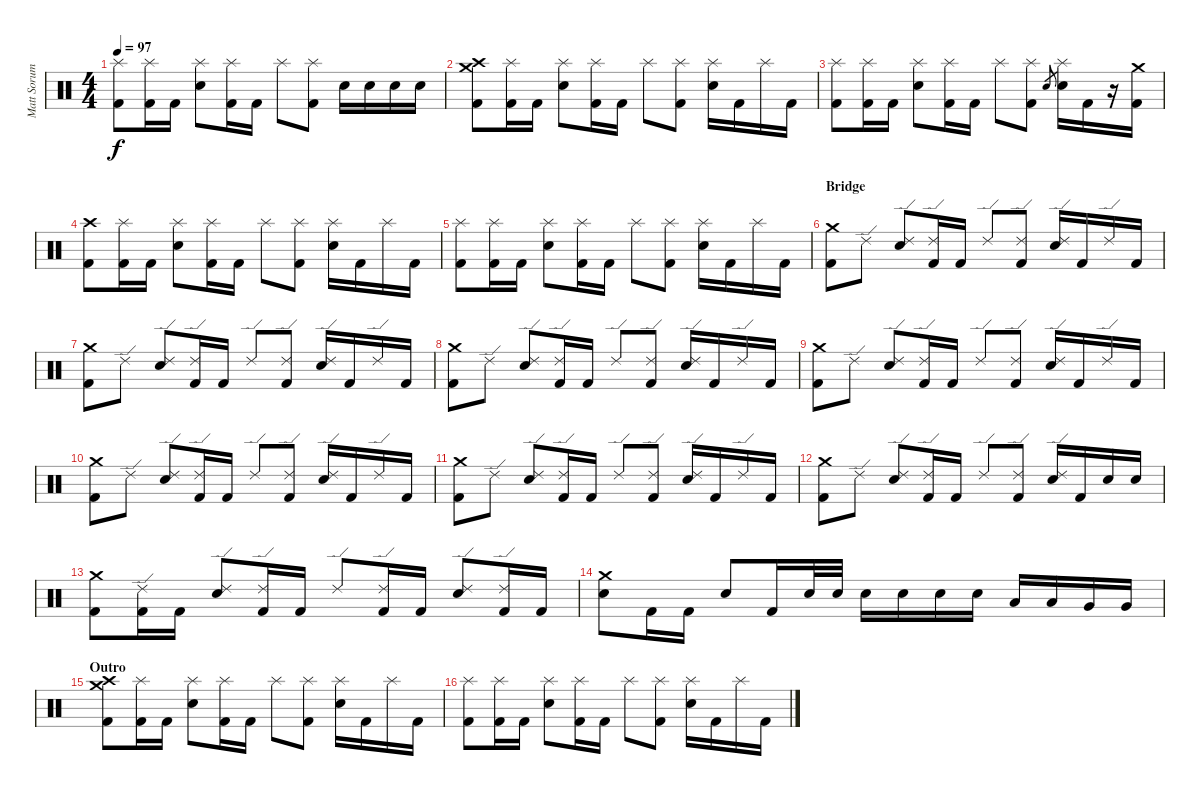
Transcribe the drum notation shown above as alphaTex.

\track ("Matt Sorum" "Matt Sorum") {instrument percussion}
\staff {score}
\articulation defaults
\ts (4 4)
\tempo 97
\clef neutral
\ks c
("Splash (hit)" "Kick (hit) 2").8{dy f} ("Splash (hit)" "Kick (hit) 2").16 "Kick (hit) 2".16 ("Splash (hit)" "Electric Snare (hit)").8 ("Splash (hit)" "Kick (hit) 2").16 "Kick (hit) 2".16 "Splash (hit)".8 ("Splash (hit)" "Kick (hit) 2").8 "Electric Snare (hit)".16 "Electric Snare (hit)".16 "Electric Snare (hit)".16 "Electric Snare (hit)".16 |
("Crash medium (hit)" "Crash high (hit)" "Kick (hit) 2").8 ("Splash (hit)" "Kick (hit) 2").16 "Kick (hit) 2".16 ("Splash (hit)" "Electric Snare (hit)").8 ("Splash (hit)" "Kick (hit) 2").16 "Kick (hit) 2".16 "Splash (hit)".8 ("Splash (hit)" "Kick (hit) 2").8 ("Splash (hit)" "Electric Snare (hit)").16 "Kick (hit) 2".16 "Splash (hit)".16 "Kick (hit) 2".16 |
("Splash (hit)" "Kick (hit) 2").8 ("Splash (hit)" "Kick (hit) 2").16 "Kick (hit) 2".16 ("Splash (hit)" "Electric Snare (hit)").8 ("Splash (hit)" "Kick (hit) 2").16 "Kick (hit) 2".16 "Splash (hit)".8 ("Splash (hit)" "Kick (hit) 2").8 "Electric Snare (hit)".8{gr} ("Splash (hit)" "Electric Snare (hit)").16 "Kick (hit) 2".16 r.16 ("Crash medium (hit)" "Kick (hit) 2").16 |
("Crash high (hit)" "Kick (hit) 2").8 ("Splash (hit)" "Kick (hit) 2").16 "Kick (hit) 2".16 ("Splash (hit)" "Electric Snare (hit)").8 ("Splash (hit)" "Kick (hit) 2").16 "Kick (hit) 2".16 "Splash (hit)".8 ("Splash (hit)" "Kick (hit) 2").8 ("Splash (hit)" "Electric Snare (hit)").16 "Kick (hit) 2".16 "Splash (hit)".16 "Kick (hit) 2".16 |
("Splash (hit)" "Kick (hit) 2").8 ("Splash (hit)" "Kick (hit) 2").16 "Kick (hit) 2".16 ("Splash (hit)" "Electric Snare (hit)").8 ("Splash (hit)" "Kick (hit) 2").16 "Kick (hit) 2".16 "Splash (hit)".8 ("Splash (hit)" "Kick (hit) 2").8 ("Splash (hit)" "Electric Snare (hit)").16 "Kick (hit) 2".16 "Splash (hit)".16 "Kick (hit) 2".16 |
\section ("" "Bridge")
("Crash medium (hit)" "Kick (hit) 2").8 "Ride (edge) 2".8 ("Ride (edge) 2" "Electric Snare (hit)").8 ("Ride (edge) 2" "Kick (hit) 2").16 "Kick (hit) 2".16 "Ride (edge) 2".8 ("Ride (edge) 2" "Kick (hit) 2").8 ("Ride (edge) 2" "Electric Snare (hit)").16 "Kick (hit) 2".16 "Ride (edge) 2".16 "Kick (hit) 2".16 |
("Crash medium (hit)" "Kick (hit) 2").8 "Ride (edge) 2".8 ("Ride (edge) 2" "Electric Snare (hit)").8 ("Ride (edge) 2" "Kick (hit) 2").16 "Kick (hit) 2".16 "Ride (edge) 2".8 ("Ride (edge) 2" "Kick (hit) 2").8 ("Ride (edge) 2" "Electric Snare (hit)").16 "Kick (hit) 2".16 "Ride (edge) 2".16 "Kick (hit) 2".16 |
("Crash medium (hit)" "Kick (hit) 2").8 "Ride (edge) 2".8 ("Ride (edge) 2" "Electric Snare (hit)").8 ("Ride (edge) 2" "Kick (hit) 2").16 "Kick (hit) 2".16 "Ride (edge) 2".8 ("Ride (edge) 2" "Kick (hit) 2").8 ("Ride (edge) 2" "Electric Snare (hit)").16 "Kick (hit) 2".16 "Ride (edge) 2".16 "Kick (hit) 2".16 |
("Crash medium (hit)" "Kick (hit) 2").8 "Ride (edge) 2".8 ("Ride (edge) 2" "Electric Snare (hit)").8 ("Ride (edge) 2" "Kick (hit) 2").16 "Kick (hit) 2".16 "Ride (edge) 2".8 ("Ride (edge) 2" "Kick (hit) 2").8 ("Ride (edge) 2" "Electric Snare (hit)").16 "Kick (hit) 2".16 "Ride (edge) 2".16 "Kick (hit) 2".16 |
("Crash medium (hit)" "Kick (hit) 2").8 "Ride (edge) 2".8 ("Ride (edge) 2" "Electric Snare (hit)").8 ("Ride (edge) 2" "Kick (hit) 2").16 "Kick (hit) 2".16 "Ride (edge) 2".8 ("Ride (edge) 2" "Kick (hit) 2").8 ("Ride (edge) 2" "Electric Snare (hit)").16 "Kick (hit) 2".16 "Ride (edge) 2".16 "Kick (hit) 2".16 |
("Crash medium (hit)" "Kick (hit) 2").8 "Ride (edge) 2".8 ("Ride (edge) 2" "Electric Snare (hit)").8 ("Ride (edge) 2" "Kick (hit) 2").16 "Kick (hit) 2".16 "Ride (edge) 2".8 ("Ride (edge) 2" "Kick (hit) 2").8 ("Ride (edge) 2" "Electric Snare (hit)").16 "Kick (hit) 2".16 "Ride (edge) 2".16 "Kick (hit) 2".16 |
("Crash medium (hit)" "Kick (hit) 2").8 "Ride (edge) 2".8 ("Ride (edge) 2" "Electric Snare (hit)").8 ("Ride (edge) 2" "Kick (hit) 2").16 "Kick (hit) 2".16 "Ride (edge) 2".8 ("Ride (edge) 2" "Kick (hit) 2").8 ("Ride (edge) 2" "Electric Snare (hit)").16 "Kick (hit) 2".16 "Electric Snare (hit)".16 "Electric Snare (hit)".16 |
("Crash medium (hit)" "Kick (hit) 2").8 ("Ride (edge) 2" "Kick (hit) 2").16 "Kick (hit) 2".16 ("Ride (edge) 2" "Electric Snare (hit)").8 ("Ride (edge) 2" "Kick (hit) 2").16 "Kick (hit) 2".16 "Ride (edge) 2".8 ("Ride (edge) 2" "Kick (hit) 2").16 "Kick (hit) 2".16 ("Ride (edge) 2" "Electric Snare (hit)").8 ("Ride (edge) 2" "Kick (hit) 2").16 "Kick (hit) 2".16 |
("Crash medium (hit)" "Electric Snare (hit)").8 "Kick (hit) 2".16 "Kick (hit) 2".16 "Electric Snare (hit)".8 "Kick (hit) 2".16 "Electric Snare (hit)".32 "Electric Snare (hit)".32 "Electric Snare (hit)".16 "Electric Snare (hit)".16 "Electric Snare (hit)".16 "Electric Snare (hit)".16 "Low Tom (hit)".16 "Low Tom (hit)".16 "Very Low Tom (hit)".16 "Very Low Tom (hit)".16 |
\section ("" "Outro")
("Crash medium (hit)" "Crash high (hit)" "Kick (hit) 2").8 ("Splash (hit)" "Kick (hit) 2").16 "Kick (hit) 2".16 ("Splash (hit)" "Electric Snare (hit)").8 ("Splash (hit)" "Kick (hit) 2").16 "Kick (hit) 2".16 "Splash (hit)".8 ("Splash (hit)" "Kick (hit) 2").8 ("Splash (hit)" "Electric Snare (hit)").16 "Kick (hit) 2".16 "Splash (hit)".16 "Kick (hit) 2".16 |
("Splash (hit)" "Kick (hit) 2").8 ("Splash (hit)" "Kick (hit) 2").16 "Kick (hit) 2".16 ("Splash (hit)" "Electric Snare (hit)").8 ("Splash (hit)" "Kick (hit) 2").16 "Kick (hit) 2".16 "Splash (hit)".8 ("Splash (hit)" "Kick (hit) 2").8 ("Splash (hit)" "Electric Snare (hit)").16 "Kick (hit) 2".16 "Splash (hit)".16 "Kick (hit) 2".16
